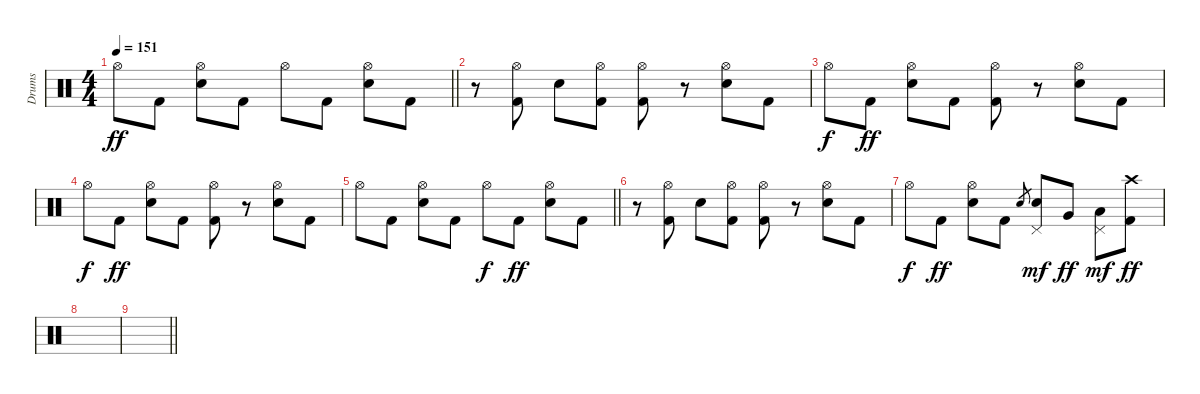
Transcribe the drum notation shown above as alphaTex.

\track ("Drums" "Drums") {instrument percussion}
\staff {score}
\articulation defaults
\ts (4 4)
\tempo 151
\clef neutral
\barLineRight lightlight
\ks c "Hi-Hat (open)".8{dy ff} "Kick (hit) 2".8
("Hi-Hat (open)" "Electric Snare (hit)").8 "Kick (hit) 2".8 "Hi-Hat (open)".8 "Kick (hit) 2".8 ("Hi-Hat (open)" "Electric Snare (hit)").8 "Kick (hit) 2".8 |
r.8 ("Hi-Hat (open)" "Kick (hit) 2").8 "Electric Snare (hit)".8 ("Hi-Hat (open)" "Kick (hit) 2").8 ("Hi-Hat (open)" "Kick (hit) 2").8 r.8 ("Hi-Hat (open)" "Electric Snare (hit)").8 "Kick (hit) 2".8 |
"Hi-Hat (open)".8{dy f} "Kick (hit) 2".8{dy ff} ("Hi-Hat (open)" "Electric Snare (hit)").8 "Kick (hit) 2".8 ("Hi-Hat (open)" "Kick (hit) 2").8 r.8 ("Hi-Hat (open)" "Electric Snare (hit)").8 "Kick (hit) 2".8 |
"Hi-Hat (open)".8{dy f} "Kick (hit) 2".8{dy ff} ("Hi-Hat (open)" "Electric Snare (hit)").8 "Kick (hit) 2".8 ("Hi-Hat (open)" "Kick (hit) 2").8 r.8 ("Hi-Hat (open)" "Electric Snare (hit)").8 "Kick (hit) 2".8 |
\barLineRight lightlight "Hi-Hat (open)".8 "Kick (hit) 2".8
("Hi-Hat (open)" "Electric Snare (hit)").8 "Kick (hit) 2".8 "Hi-Hat (open)".8{dy f} "Kick (hit) 2".8{dy ff} ("Hi-Hat (open)" "Electric Snare (hit)").8 "Kick (hit) 2".8 |
r.8 ("Hi-Hat (open)" "Kick (hit) 2").8 "Electric Snare (hit)".8 ("Hi-Hat (open)" "Kick (hit) 2").8 ("Hi-Hat (open)" "Kick (hit) 2").8 r.8 ("Hi-Hat (open)" "Electric Snare (hit)").8 "Kick (hit) 2".8 |
"Hi-Hat (open)".8{dy f} "Kick (hit) 2".8{dy ff} ("Hi-Hat (open)" "Electric Snare (hit)").8 "Kick (hit) 2".8 "Electric Snare (hit)".8{gr} ("Electric Snare (hit)" "Pedal Hi-Hat (hit)").8{dy mf} "Very Low Tom (hit)".8{dy ff} ("Low Floor Tom (hit)" "Pedal Hi-Hat (hit)").8{dy mf} ("Crash high (hit)" "Kick (hit) 2").8{dy ff} |
|
\barLineRight lightlight
